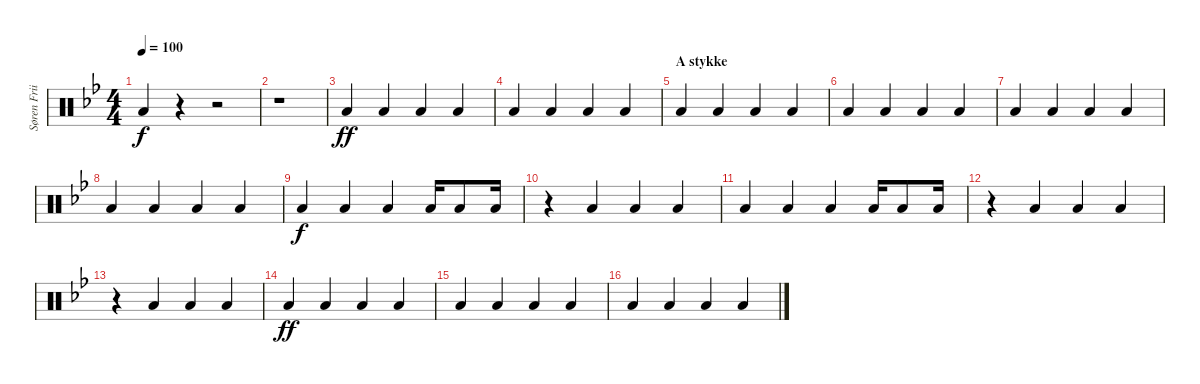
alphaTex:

\track ("Søren Friis (Drums)" "Søren Frii") {instrument percussion}
\staff {score}
\articulation defaults
\ts (4 4)
\tempo 100
\clef neutral
\ks bb "Low Floor Tom (hit)".4{dy f}
r.4 r.2 |
r.1 |
"Low Floor Tom (hit)".4{dy ff} "Low Floor Tom (hit)".4 "Low Floor Tom (hit)".4 "Low Floor Tom (hit)".4 |
"Low Floor Tom (hit)".4 "Low Floor Tom (hit)".4 "Low Floor Tom (hit)".4 "Low Floor Tom (hit)".4 |
\section ("" "A stykke")
"Low Floor Tom (hit)".4 "Low Floor Tom (hit)".4 "Low Floor Tom (hit)".4 "Low Floor Tom (hit)".4 |
"Low Floor Tom (hit)".4 "Low Floor Tom (hit)".4 "Low Floor Tom (hit)".4 "Low Floor Tom (hit)".4 |
"Low Floor Tom (hit)".4 "Low Floor Tom (hit)".4 "Low Floor Tom (hit)".4 "Low Floor Tom (hit)".4 |
"Low Floor Tom (hit)".4 "Low Floor Tom (hit)".4 "Low Floor Tom (hit)".4 "Low Floor Tom (hit)".4 |
"Low Floor Tom (hit)".4{dy f} "Low Floor Tom (hit)".4 "Low Floor Tom (hit)".4 "Low Floor Tom (hit)".16 "Low Floor Tom (hit)".8 "Low Floor Tom (hit)".16 |
r.4 "Low Floor Tom (hit)".4 "Low Floor Tom (hit)".4 "Low Floor Tom (hit)".4 |
"Low Floor Tom (hit)".4 "Low Floor Tom (hit)".4 "Low Floor Tom (hit)".4 "Low Floor Tom (hit)".16 "Low Floor Tom (hit)".8 "Low Floor Tom (hit)".16 |
r.4 "Low Floor Tom (hit)".4 "Low Floor Tom (hit)".4 "Low Floor Tom (hit)".4 |
r.4 "Low Floor Tom (hit)".4 "Low Floor Tom (hit)".4 "Low Floor Tom (hit)".4 |
"Low Floor Tom (hit)".4{dy ff} "Low Floor Tom (hit)".4 "Low Floor Tom (hit)".4 "Low Floor Tom (hit)".4 |
"Low Floor Tom (hit)".4 "Low Floor Tom (hit)".4 "Low Floor Tom (hit)".4 "Low Floor Tom (hit)".4 |
"Low Floor Tom (hit)".4 "Low Floor Tom (hit)".4 "Low Floor Tom (hit)".4 "Low Floor Tom (hit)".4
